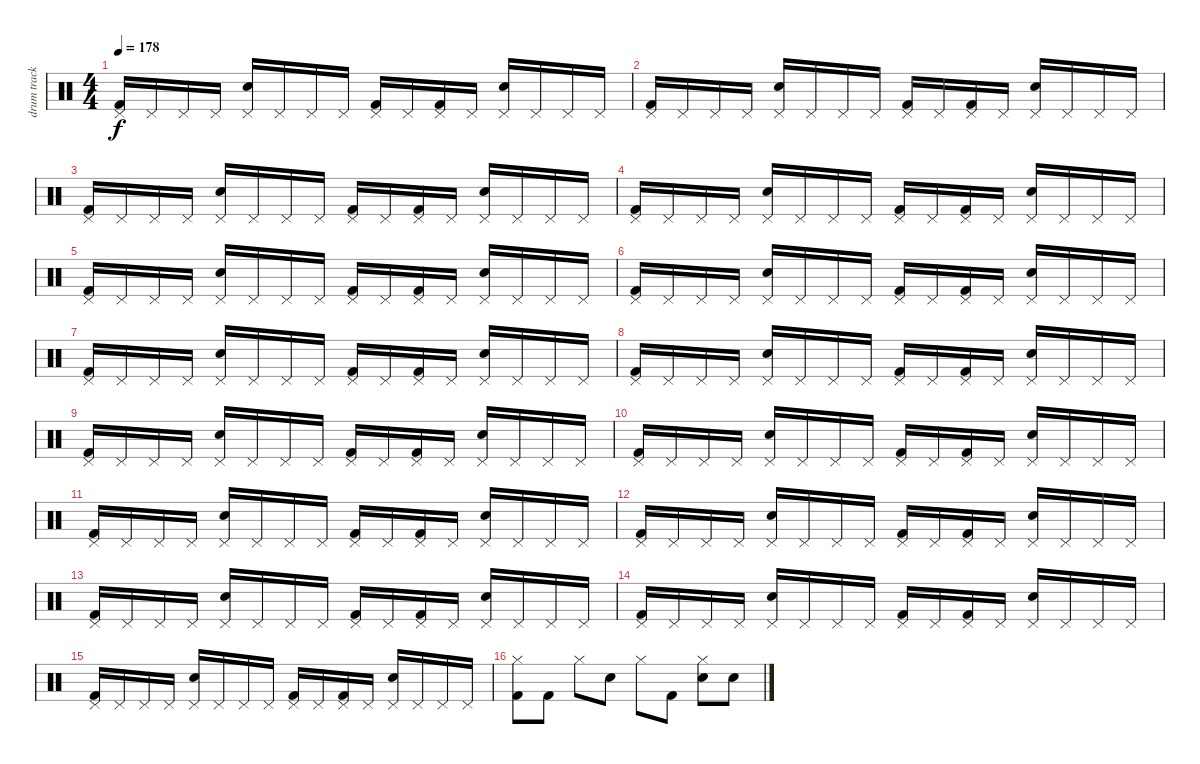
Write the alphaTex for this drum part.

\track ("drum track" "drum track") {instrument percussion}
\staff {score}
\articulation defaults
\ts (4 4)
\tempo 178
\clef neutral
\ks c
("Kick (hit) 2" "Pedal Hi-Hat (hit)").16{dy f} "Pedal Hi-Hat (hit)".16 "Pedal Hi-Hat (hit)".16 "Pedal Hi-Hat (hit)".16 ("Snare (hit) 2" "Pedal Hi-Hat (hit)").16 "Pedal Hi-Hat (hit)".16 "Pedal Hi-Hat (hit)".16 "Pedal Hi-Hat (hit)".16 ("Kick (hit) 2" "Pedal Hi-Hat (hit)").16 "Pedal Hi-Hat (hit)".16 ("Kick (hit) 2" "Pedal Hi-Hat (hit)").16 "Pedal Hi-Hat (hit)".16 ("Snare (hit) 2" "Pedal Hi-Hat (hit)").16 "Pedal Hi-Hat (hit)".16 "Pedal Hi-Hat (hit)".16 "Pedal Hi-Hat (hit)".16 |
("Kick (hit) 2" "Pedal Hi-Hat (hit)").16 "Pedal Hi-Hat (hit)".16 "Pedal Hi-Hat (hit)".16 "Pedal Hi-Hat (hit)".16 ("Snare (hit) 2" "Pedal Hi-Hat (hit)").16 "Pedal Hi-Hat (hit)".16 "Pedal Hi-Hat (hit)".16 "Pedal Hi-Hat (hit)".16 ("Kick (hit) 2" "Pedal Hi-Hat (hit)").16 "Pedal Hi-Hat (hit)".16 ("Kick (hit) 2" "Pedal Hi-Hat (hit)").16 "Pedal Hi-Hat (hit)".16 ("Snare (hit) 2" "Pedal Hi-Hat (hit)").16 "Pedal Hi-Hat (hit)".16 "Pedal Hi-Hat (hit)".16 "Pedal Hi-Hat (hit)".16 |
("Kick (hit) 2" "Pedal Hi-Hat (hit)").16 "Pedal Hi-Hat (hit)".16 "Pedal Hi-Hat (hit)".16 "Pedal Hi-Hat (hit)".16 ("Snare (hit) 2" "Pedal Hi-Hat (hit)").16 "Pedal Hi-Hat (hit)".16 "Pedal Hi-Hat (hit)".16 "Pedal Hi-Hat (hit)".16 ("Kick (hit) 2" "Pedal Hi-Hat (hit)").16 "Pedal Hi-Hat (hit)".16 ("Kick (hit) 2" "Pedal Hi-Hat (hit)").16 "Pedal Hi-Hat (hit)".16 ("Snare (hit) 2" "Pedal Hi-Hat (hit)").16 "Pedal Hi-Hat (hit)".16 "Pedal Hi-Hat (hit)".16 "Pedal Hi-Hat (hit)".16 |
("Kick (hit) 2" "Pedal Hi-Hat (hit)").16 "Pedal Hi-Hat (hit)".16 "Pedal Hi-Hat (hit)".16 "Pedal Hi-Hat (hit)".16 ("Snare (hit) 2" "Pedal Hi-Hat (hit)").16 "Pedal Hi-Hat (hit)".16 "Pedal Hi-Hat (hit)".16 "Pedal Hi-Hat (hit)".16 ("Kick (hit) 2" "Pedal Hi-Hat (hit)").16 "Pedal Hi-Hat (hit)".16 ("Kick (hit) 2" "Pedal Hi-Hat (hit)").16 "Pedal Hi-Hat (hit)".16 ("Snare (hit) 2" "Pedal Hi-Hat (hit)").16 "Pedal Hi-Hat (hit)".16 "Pedal Hi-Hat (hit)".16 "Pedal Hi-Hat (hit)".16 |
("Kick (hit) 2" "Pedal Hi-Hat (hit)").16 "Pedal Hi-Hat (hit)".16 "Pedal Hi-Hat (hit)".16 "Pedal Hi-Hat (hit)".16 ("Snare (hit) 2" "Pedal Hi-Hat (hit)").16 "Pedal Hi-Hat (hit)".16 "Pedal Hi-Hat (hit)".16 "Pedal Hi-Hat (hit)".16 ("Kick (hit) 2" "Pedal Hi-Hat (hit)").16 "Pedal Hi-Hat (hit)".16 ("Kick (hit) 2" "Pedal Hi-Hat (hit)").16 "Pedal Hi-Hat (hit)".16 ("Snare (hit) 2" "Pedal Hi-Hat (hit)").16 "Pedal Hi-Hat (hit)".16 "Pedal Hi-Hat (hit)".16 "Pedal Hi-Hat (hit)".16 |
("Kick (hit) 2" "Pedal Hi-Hat (hit)").16 "Pedal Hi-Hat (hit)".16 "Pedal Hi-Hat (hit)".16 "Pedal Hi-Hat (hit)".16 ("Snare (hit) 2" "Pedal Hi-Hat (hit)").16 "Pedal Hi-Hat (hit)".16 "Pedal Hi-Hat (hit)".16 "Pedal Hi-Hat (hit)".16 ("Kick (hit) 2" "Pedal Hi-Hat (hit)").16 "Pedal Hi-Hat (hit)".16 ("Kick (hit) 2" "Pedal Hi-Hat (hit)").16 "Pedal Hi-Hat (hit)".16 ("Snare (hit) 2" "Pedal Hi-Hat (hit)").16 "Pedal Hi-Hat (hit)".16 "Pedal Hi-Hat (hit)".16 "Pedal Hi-Hat (hit)".16 |
("Kick (hit) 2" "Pedal Hi-Hat (hit)").16 "Pedal Hi-Hat (hit)".16 "Pedal Hi-Hat (hit)".16 "Pedal Hi-Hat (hit)".16 ("Snare (hit) 2" "Pedal Hi-Hat (hit)").16 "Pedal Hi-Hat (hit)".16 "Pedal Hi-Hat (hit)".16 "Pedal Hi-Hat (hit)".16 ("Kick (hit) 2" "Pedal Hi-Hat (hit)").16 "Pedal Hi-Hat (hit)".16 ("Kick (hit) 2" "Pedal Hi-Hat (hit)").16 "Pedal Hi-Hat (hit)".16 ("Snare (hit) 2" "Pedal Hi-Hat (hit)").16 "Pedal Hi-Hat (hit)".16 "Pedal Hi-Hat (hit)".16 "Pedal Hi-Hat (hit)".16 |
("Kick (hit) 2" "Pedal Hi-Hat (hit)").16 "Pedal Hi-Hat (hit)".16 "Pedal Hi-Hat (hit)".16 "Pedal Hi-Hat (hit)".16 ("Snare (hit) 2" "Pedal Hi-Hat (hit)").16 "Pedal Hi-Hat (hit)".16 "Pedal Hi-Hat (hit)".16 "Pedal Hi-Hat (hit)".16 ("Kick (hit) 2" "Pedal Hi-Hat (hit)").16 "Pedal Hi-Hat (hit)".16 ("Kick (hit) 2" "Pedal Hi-Hat (hit)").16 "Pedal Hi-Hat (hit)".16 ("Snare (hit) 2" "Pedal Hi-Hat (hit)").16 "Pedal Hi-Hat (hit)".16 "Pedal Hi-Hat (hit)".16 "Pedal Hi-Hat (hit)".16 |
("Kick (hit) 2" "Pedal Hi-Hat (hit)").16 "Pedal Hi-Hat (hit)".16 "Pedal Hi-Hat (hit)".16 "Pedal Hi-Hat (hit)".16 ("Snare (hit) 2" "Pedal Hi-Hat (hit)").16 "Pedal Hi-Hat (hit)".16 "Pedal Hi-Hat (hit)".16 "Pedal Hi-Hat (hit)".16 ("Kick (hit) 2" "Pedal Hi-Hat (hit)").16 "Pedal Hi-Hat (hit)".16 ("Kick (hit) 2" "Pedal Hi-Hat (hit)").16 "Pedal Hi-Hat (hit)".16 ("Snare (hit) 2" "Pedal Hi-Hat (hit)").16 "Pedal Hi-Hat (hit)".16 "Pedal Hi-Hat (hit)".16 "Pedal Hi-Hat (hit)".16 |
("Kick (hit) 2" "Pedal Hi-Hat (hit)").16 "Pedal Hi-Hat (hit)".16 "Pedal Hi-Hat (hit)".16 "Pedal Hi-Hat (hit)".16 ("Snare (hit) 2" "Pedal Hi-Hat (hit)").16 "Pedal Hi-Hat (hit)".16 "Pedal Hi-Hat (hit)".16 "Pedal Hi-Hat (hit)".16 ("Kick (hit) 2" "Pedal Hi-Hat (hit)").16 "Pedal Hi-Hat (hit)".16 ("Kick (hit) 2" "Pedal Hi-Hat (hit)").16 "Pedal Hi-Hat (hit)".16 ("Snare (hit) 2" "Pedal Hi-Hat (hit)").16 "Pedal Hi-Hat (hit)".16 "Pedal Hi-Hat (hit)".16 "Pedal Hi-Hat (hit)".16 |
("Kick (hit) 2" "Pedal Hi-Hat (hit)").16 "Pedal Hi-Hat (hit)".16 "Pedal Hi-Hat (hit)".16 "Pedal Hi-Hat (hit)".16 ("Snare (hit) 2" "Pedal Hi-Hat (hit)").16 "Pedal Hi-Hat (hit)".16 "Pedal Hi-Hat (hit)".16 "Pedal Hi-Hat (hit)".16 ("Kick (hit) 2" "Pedal Hi-Hat (hit)").16 "Pedal Hi-Hat (hit)".16 ("Kick (hit) 2" "Pedal Hi-Hat (hit)").16 "Pedal Hi-Hat (hit)".16 ("Snare (hit) 2" "Pedal Hi-Hat (hit)").16 "Pedal Hi-Hat (hit)".16 "Pedal Hi-Hat (hit)".16 "Pedal Hi-Hat (hit)".16 |
("Kick (hit) 2" "Pedal Hi-Hat (hit)").16 "Pedal Hi-Hat (hit)".16 "Pedal Hi-Hat (hit)".16 "Pedal Hi-Hat (hit)".16 ("Snare (hit) 2" "Pedal Hi-Hat (hit)").16 "Pedal Hi-Hat (hit)".16 "Pedal Hi-Hat (hit)".16 "Pedal Hi-Hat (hit)".16 ("Kick (hit) 2" "Pedal Hi-Hat (hit)").16 "Pedal Hi-Hat (hit)".16 ("Kick (hit) 2" "Pedal Hi-Hat (hit)").16 "Pedal Hi-Hat (hit)".16 ("Snare (hit) 2" "Pedal Hi-Hat (hit)").16 "Pedal Hi-Hat (hit)".16 "Pedal Hi-Hat (hit)".16 "Pedal Hi-Hat (hit)".16 |
("Kick (hit) 2" "Pedal Hi-Hat (hit)").16 "Pedal Hi-Hat (hit)".16 "Pedal Hi-Hat (hit)".16 "Pedal Hi-Hat (hit)".16 ("Snare (hit) 2" "Pedal Hi-Hat (hit)").16 "Pedal Hi-Hat (hit)".16 "Pedal Hi-Hat (hit)".16 "Pedal Hi-Hat (hit)".16 ("Kick (hit) 2" "Pedal Hi-Hat (hit)").16 "Pedal Hi-Hat (hit)".16 ("Kick (hit) 2" "Pedal Hi-Hat (hit)").16 "Pedal Hi-Hat (hit)".16 ("Snare (hit) 2" "Pedal Hi-Hat (hit)").16 "Pedal Hi-Hat (hit)".16 "Pedal Hi-Hat (hit)".16 "Pedal Hi-Hat (hit)".16 |
("Kick (hit) 2" "Pedal Hi-Hat (hit)").16 "Pedal Hi-Hat (hit)".16 "Pedal Hi-Hat (hit)".16 "Pedal Hi-Hat (hit)".16 ("Snare (hit) 2" "Pedal Hi-Hat (hit)").16 "Pedal Hi-Hat (hit)".16 "Pedal Hi-Hat (hit)".16 "Pedal Hi-Hat (hit)".16 ("Kick (hit) 2" "Pedal Hi-Hat (hit)").16 "Pedal Hi-Hat (hit)".16 ("Kick (hit) 2" "Pedal Hi-Hat (hit)").16 "Pedal Hi-Hat (hit)".16 ("Snare (hit) 2" "Pedal Hi-Hat (hit)").16 "Pedal Hi-Hat (hit)".16 "Pedal Hi-Hat (hit)".16 "Pedal Hi-Hat (hit)".16 |
("Kick (hit) 2" "Pedal Hi-Hat (hit)").16 "Pedal Hi-Hat (hit)".16 "Pedal Hi-Hat (hit)".16 "Pedal Hi-Hat (hit)".16 ("Snare (hit) 2" "Pedal Hi-Hat (hit)").16 "Pedal Hi-Hat (hit)".16 "Pedal Hi-Hat (hit)".16 "Pedal Hi-Hat (hit)".16 ("Kick (hit) 2" "Pedal Hi-Hat (hit)").16 "Pedal Hi-Hat (hit)".16 ("Kick (hit) 2" "Pedal Hi-Hat (hit)").16 "Pedal Hi-Hat (hit)".16 ("Snare (hit) 2" "Pedal Hi-Hat (hit)").16 "Pedal Hi-Hat (hit)".16 "Pedal Hi-Hat (hit)".16 "Pedal Hi-Hat (hit)".16 |
("Kick (hit) 2" "Hi-Hat (closed)").8 "Kick (hit) 2".8 "Hi-Hat (closed)".8 "Snare (hit) 2".8 "Hi-Hat (closed)".8 "Kick (hit) 2".8 ("Snare (hit) 2" "Hi-Hat (closed)").8 "Snare (hit) 2".8
